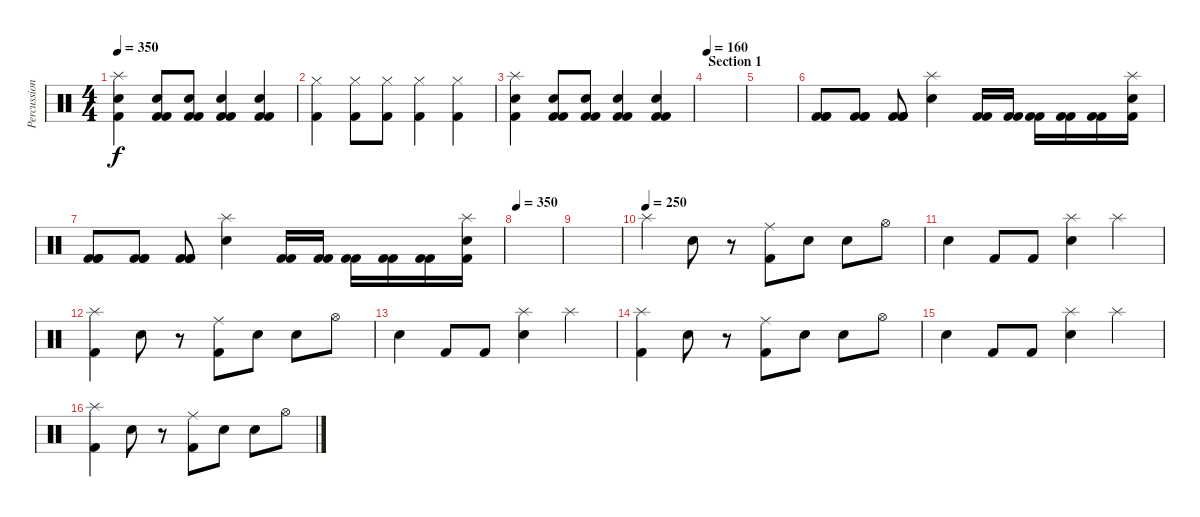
\track ("Percussions2" "Percussion") {instrument percussion}
\staff {score}
\articulation defaults
\ts (4 4)
\tempo 350
\clef neutral
\ks c
("Kick (hit) 2" "Snare (hit) 2" "Splash (hit)").4{dy f} ("Kick (hit) 2" "Kick (hit) 2" "Snare (hit) 2").8 ("Kick (hit) 2" "Kick (hit) 2" "Snare (hit) 2").8 ("Kick (hit) 2" "Kick (hit) 2" "Snare (hit) 2").4 ("Kick (hit) 2" "Kick (hit) 2" "Snare (hit) 2").4 |
("Hi-Hat (closed)" "Kick (hit) 2").4 ("Hi-Hat (closed)" "Kick (hit) 2").8 ("Hi-Hat (closed)" "Kick (hit) 2").8 ("Hi-Hat (closed)" "Kick (hit) 2").4 ("Hi-Hat (closed)" "Kick (hit) 2").4 |
("Kick (hit) 2" "Snare (hit) 2" "Splash (hit)").4 ("Kick (hit) 2" "Kick (hit) 2" "Snare (hit) 2").8 ("Kick (hit) 2" "Kick (hit) 2" "Snare (hit) 2").8 ("Kick (hit) 2" "Kick (hit) 2" "Snare (hit) 2").4 ("Kick (hit) 2" "Kick (hit) 2" "Snare (hit) 2").4 |
\section ("" "Section 1")
\tempo 160
|
|
("Kick (hit) 2" "Kick (hit) 2" "Kick (hit) 2").8 ("Kick (hit) 2" "Kick (hit) 2" "Kick (hit) 2").8 ("Kick (hit) 2" "Kick (hit) 2" "Kick (hit) 2").8 ("Snare (hit) 2" "Splash (hit)").4 ("Kick (hit) 2" "Kick (hit) 2").16 ("Kick (hit) 2" "Kick (hit) 2").16 ("Kick (hit) 2" "Kick (hit) 2").16 ("Kick (hit) 2" "Kick (hit) 2").16 ("Kick (hit) 2" "Kick (hit) 2").16 ("Snare (hit) 2" "Splash (hit)" "Kick (hit) 2").16 |
("Kick (hit) 2" "Kick (hit) 2" "Kick (hit) 2").8 ("Kick (hit) 2" "Kick (hit) 2" "Kick (hit) 2").8 ("Kick (hit) 2" "Kick (hit) 2" "Kick (hit) 2").8 ("Snare (hit) 2" "Splash (hit)").4 ("Kick (hit) 2" "Kick (hit) 2").16 ("Kick (hit) 2" "Kick (hit) 2").16 ("Kick (hit) 2" "Kick (hit) 2").16 ("Kick (hit) 2" "Kick (hit) 2").16 ("Kick (hit) 2" "Kick (hit) 2").16 ("Snare (hit) 2" "Splash (hit)" "Kick (hit) 2").16 |
\tempo 350
|
|
\tempo (250)
"Splash (hit)".4 "Snare (hit) 2".8 r.8 ("Kick (hit) 2" "Ride (middle)").8 "Snare (hit) 2".8 "Snare (hit) 2".8 "Hi-Hat (open)".8 |
"Snare (hit) 2".4 "Kick (hit) 2".8 "Kick (hit) 2".8 ("Snare (hit) 2" "Splash (hit)").4 "Splash (hit)".4 |
("Splash (hit)" "Kick (hit) 2").4 "Snare (hit) 2".8 r.8 ("Kick (hit) 2" "Ride (middle)").8 "Snare (hit) 2".8 "Snare (hit) 2".8 "Hi-Hat (open)".8 |
"Snare (hit) 2".4 "Kick (hit) 2".8 "Kick (hit) 2".8 ("Snare (hit) 2" "Splash (hit)").4 "Splash (hit)".4 |
("Splash (hit)" "Kick (hit) 2").4 "Snare (hit) 2".8 r.8 ("Kick (hit) 2" "Ride (middle)").8 "Snare (hit) 2".8 "Snare (hit) 2".8 "Hi-Hat (open)".8 |
"Snare (hit) 2".4 "Kick (hit) 2".8 "Kick (hit) 2".8 ("Snare (hit) 2" "Splash (hit)").4 "Splash (hit)".4 |
("Splash (hit)" "Kick (hit) 2").4 "Snare (hit) 2".8 r.8 ("Kick (hit) 2" "Ride (middle)").8 "Snare (hit) 2".8 "Snare (hit) 2".8 "Hi-Hat (open)".8
